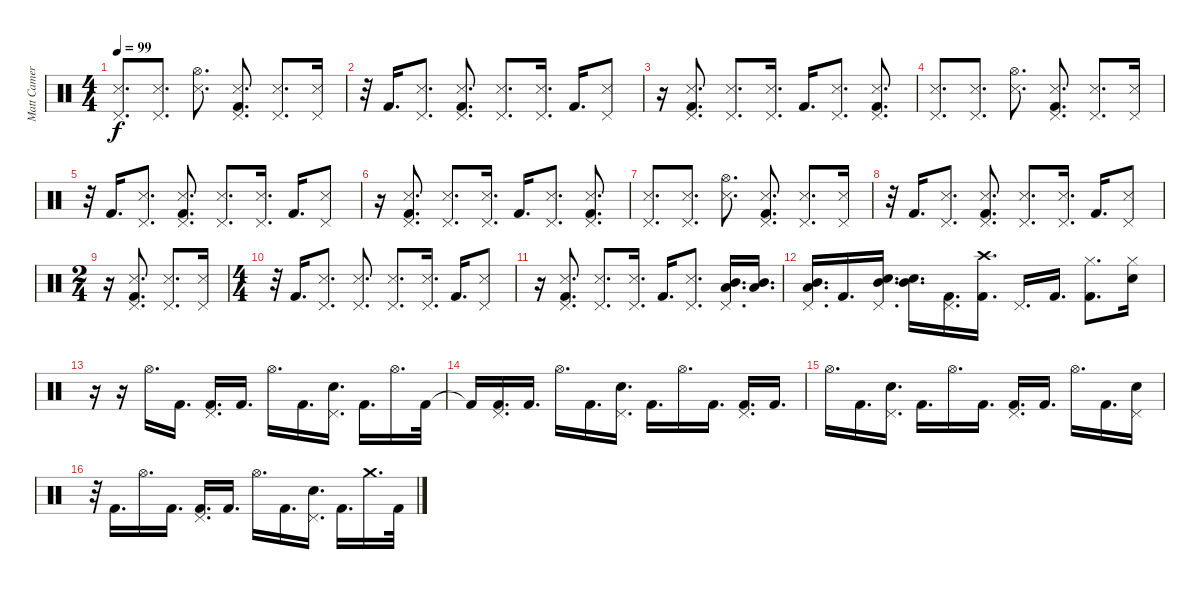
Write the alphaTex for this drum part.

\track ("Matt Cameron" "Matt Camer") {instrument percussion}
\staff {score}
\articulation defaults
\ts (4 4)
\tempo 99
\clef neutral
\ks c
("Pedal Hi-Hat (hit)" "Snare (side stick) 3").8{d dy f} ("Pedal Hi-Hat (hit)" "Snare (side stick) 3").8{d} ("Hi-Hat (open)" "Snare (side stick) 3").8{d} ("Pedal Hi-Hat (hit)" "Snare (side stick) 3" "Kick (hit) 2").8{d} ("Pedal Hi-Hat (hit)" "Snare (side stick) 3").8{d} ("Pedal Hi-Hat (hit)" "Snare (side stick) 3").16 |
r.32 "Kick (hit) 2".16{d} ("Pedal Hi-Hat (hit)" "Snare (side stick) 3").8{d} ("Pedal Hi-Hat (hit)" "Snare (side stick) 3" "Kick (hit) 2").8{d} ("Pedal Hi-Hat (hit)" "Snare (side stick) 3").8{d} ("Pedal Hi-Hat (hit)" "Snare (side stick) 3").16{d} "Kick (hit) 2".16{d} ("Pedal Hi-Hat (hit)" "Snare (side stick) 3").8 |
r.16 ("Pedal Hi-Hat (hit)" "Snare (side stick) 3" "Kick (hit) 2").8{d} ("Pedal Hi-Hat (hit)" "Snare (side stick) 3").8{d} ("Pedal Hi-Hat (hit)" "Snare (side stick) 3").16{d} "Kick (hit) 2".16{d} ("Pedal Hi-Hat (hit)" "Snare (side stick) 3").8{d} ("Pedal Hi-Hat (hit)" "Snare (side stick) 3" "Kick (hit) 2").8{d} |
("Pedal Hi-Hat (hit)" "Snare (side stick) 3").8{d} ("Pedal Hi-Hat (hit)" "Snare (side stick) 3").8{d} ("Hi-Hat (open)" "Snare (side stick) 3").8{d} ("Pedal Hi-Hat (hit)" "Snare (side stick) 3" "Kick (hit) 2").8{d} ("Pedal Hi-Hat (hit)" "Snare (side stick) 3").8{d} ("Pedal Hi-Hat (hit)" "Snare (side stick) 3").16 |
r.32 "Kick (hit) 2".16{d} ("Pedal Hi-Hat (hit)" "Snare (side stick) 3").8{d} ("Pedal Hi-Hat (hit)" "Snare (side stick) 3" "Kick (hit) 2").8{d} ("Pedal Hi-Hat (hit)" "Snare (side stick) 3").8{d} ("Pedal Hi-Hat (hit)" "Snare (side stick) 3").16{d} "Kick (hit) 2".16{d} ("Pedal Hi-Hat (hit)" "Snare (side stick) 3").8 |
r.16 ("Pedal Hi-Hat (hit)" "Snare (side stick) 3" "Kick (hit) 2").8{d} ("Pedal Hi-Hat (hit)" "Snare (side stick) 3").8{d} ("Pedal Hi-Hat (hit)" "Snare (side stick) 3").16{d} "Kick (hit) 2".16{d} ("Pedal Hi-Hat (hit)" "Snare (side stick) 3").8{d} ("Pedal Hi-Hat (hit)" "Snare (side stick) 3" "Kick (hit) 2").8{d} |
("Pedal Hi-Hat (hit)" "Snare (side stick) 3").8{d} ("Pedal Hi-Hat (hit)" "Snare (side stick) 3").8{d} ("Hi-Hat (open)" "Snare (side stick) 3").8{d} ("Pedal Hi-Hat (hit)" "Snare (side stick) 3" "Kick (hit) 2").8{d} ("Pedal Hi-Hat (hit)" "Snare (side stick) 3").8{d} ("Pedal Hi-Hat (hit)" "Snare (side stick) 3").16 |
r.32 "Kick (hit) 2".16{d} ("Pedal Hi-Hat (hit)" "Snare (side stick) 3").8{d} ("Pedal Hi-Hat (hit)" "Snare (side stick) 3" "Kick (hit) 2").8{d} ("Pedal Hi-Hat (hit)" "Snare (side stick) 3").8{d} ("Pedal Hi-Hat (hit)" "Snare (side stick) 3").16{d} "Kick (hit) 2".16{d} ("Pedal Hi-Hat (hit)" "Snare (side stick) 3").8 |
\ts (2 4)
r.16 ("Pedal Hi-Hat (hit)" "Snare (side stick) 3" "Kick (hit) 2").8{d} ("Pedal Hi-Hat (hit)" "Snare (side stick) 3").8{d} ("Pedal Hi-Hat (hit)" "Snare (side stick) 3").16 |
\ts (4 4)
r.32 "Kick (hit) 2".16{d} ("Pedal Hi-Hat (hit)" "Snare (side stick) 3").8{d} ("Pedal Hi-Hat (hit)" "Snare (side stick) 3").8{d} ("Pedal Hi-Hat (hit)" "Snare (side stick) 3").8{d} ("Pedal Hi-Hat (hit)" "Snare (side stick) 3").16{d} "Kick (hit) 2".16{d} ("Pedal Hi-Hat (hit)" "Snare (side stick) 3").8 |
r.16 ("Pedal Hi-Hat (hit)" "Snare (side stick) 3" "Kick (hit) 2").8{d} ("Pedal Hi-Hat (hit)" "Snare (side stick) 3").8{d} ("Pedal Hi-Hat (hit)" "Snare (side stick) 3").16{d} "Kick (hit) 2".16{d} ("Pedal Hi-Hat (hit)" "Snare (side stick) 3").8{d} ("Pedal Hi-Hat (hit)" "Low Tom (hit)" "Mid Tom (hit)").16{d} ("Low Tom (hit)" "Mid Tom (hit)").16{d} |
("Pedal Hi-Hat (hit)" "Low Tom (hit)" "Mid Tom (hit)").16{d} "Kick (hit) 2".16{d} ("Pedal Hi-Hat (hit)" "Electric Snare (hit)" "Mid Tom (hit)").16{d} ("Electric Snare (hit)" "Mid Tom (hit)").16{d} ("Pedal Hi-Hat (hit)" "Kick (hit) 2").16{d} ("Crash high (hit)" "Kick (hit) 2").16{d} "Pedal Hi-Hat (hit)".16{d} "Kick (hit) 2".16{d} ("Hi-Hat (closed)" "Kick (hit) 2").8{d} ("Hi-Hat (closed)" "Electric Snare (hit)").16 |
r.16 r.16 "Hi-Hat (open)".16{d} "Kick (hit) 2".16{d} ("Pedal Hi-Hat (hit)" "Kick (hit) 2").16{d} "Kick (hit) 2".16{d} "Hi-Hat (open)".16{d} "Kick (hit) 2".16{d} ("Pedal Hi-Hat (hit)" "Electric Snare (hit)").16{d} "Kick (hit) 2".16{d} "Hi-Hat (open)".16{d} "Kick (hit) 2".32 |
"Kick (hit) 2"{t}.16 ("Pedal Hi-Hat (hit)" "Kick (hit) 2").16{d} "Kick (hit) 2".16{d} "Hi-Hat (open)".16{d} "Kick (hit) 2".16{d} ("Pedal Hi-Hat (hit)" "Electric Snare (hit)").16{d} "Kick (hit) 2".16{d} "Hi-Hat (open)".16{d} "Kick (hit) 2".16{d} ("Pedal Hi-Hat (hit)" "Kick (hit) 2").16{d} "Kick (hit) 2".16{d} |
"Hi-Hat (open)".16{d} "Kick (hit) 2".16{d} ("Pedal Hi-Hat (hit)" "Electric Snare (hit)").16{d} "Kick (hit) 2".16{d} "Hi-Hat (open)".16{d} "Kick (hit) 2".16{d} ("Pedal Hi-Hat (hit)" "Kick (hit) 2").16{d} "Kick (hit) 2".16{d} "Hi-Hat (open)".16{d} "Kick (hit) 2".16{d} ("Pedal Hi-Hat (hit)" "Electric Snare (hit)").16 |
r.32 "Kick (hit) 2".16{d} "Hi-Hat (open)".16{d} "Kick (hit) 2".16{d} ("Pedal Hi-Hat (hit)" "Kick (hit) 2").16{d} "Kick (hit) 2".16{d} "Hi-Hat (open)".16{d} "Kick (hit) 2".16{d} ("Pedal Hi-Hat (hit)" "Electric Snare (hit)").16{d} "Kick (hit) 2".16{d} "Crash medium (hit)".16{d} "Kick (hit) 2".32
